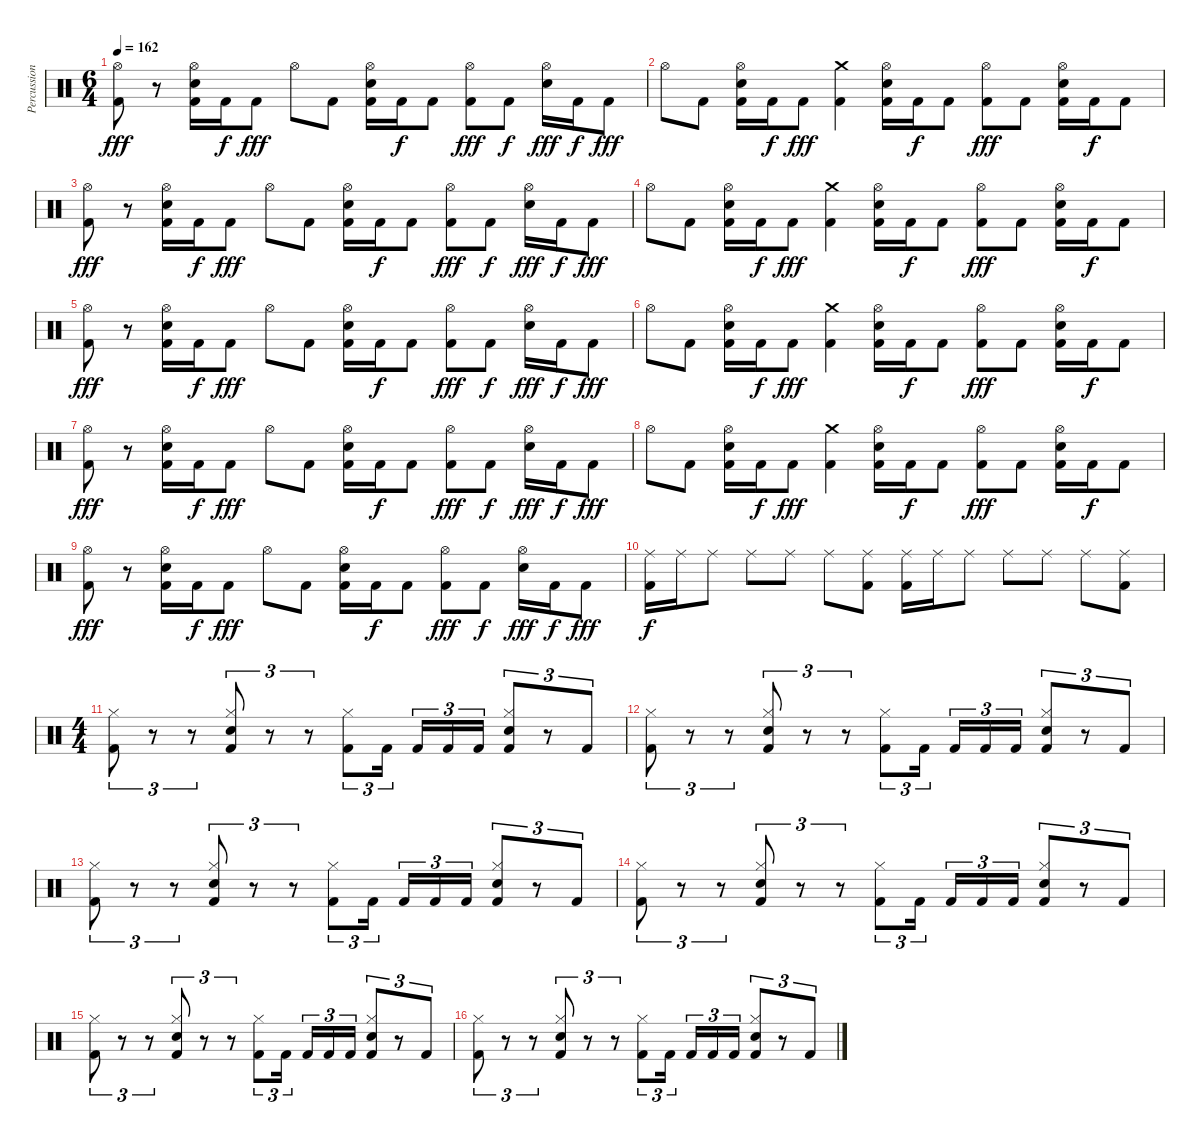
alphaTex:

\track ("Percussion" "Percussion") {instrument percussion}
\staff {score}
\articulation defaults
\ts (6 4)
\tempo 162
\clef neutral
\ks c
("Hi-Hat (open)" "Kick (hit) 2").8{dy fff} r.8 ("Hi-Hat (open)" "Snare (hit) 2" "Kick (hit) 2").16 "Kick (hit) 2".16{dy f} "Kick (hit) 2".8{dy fff} "Hi-Hat (open)".8 "Kick (hit) 2".8 ("Hi-Hat (open)" "Snare (hit) 2" "Kick (hit) 2").16 "Kick (hit) 2".16{dy f} "Kick (hit) 2".8 ("Hi-Hat (open)" "Kick (hit) 2").8{dy fff} "Kick (hit) 2".8{dy f} ("Hi-Hat (open)" "Snare (hit) 2").16{dy fff} "Kick (hit) 2".16{dy f} "Kick (hit) 2".8{dy fff} |
"Hi-Hat (open)".8 "Kick (hit) 2".8 ("Hi-Hat (open)" "Snare (hit) 2" "Kick (hit) 2").16 "Kick (hit) 2".16{dy f} "Kick (hit) 2".8{dy fff} ("Crash medium (hit)" "Kick (hit) 2").4 ("Hi-Hat (open)" "Snare (hit) 2" "Kick (hit) 2").16 "Kick (hit) 2".16{dy f} "Kick (hit) 2".8 ("Hi-Hat (open)" "Kick (hit) 2").8{dy fff} "Kick (hit) 2".8 ("Hi-Hat (open)" "Snare (hit) 2" "Kick (hit) 2").16 "Kick (hit) 2".16{dy f} "Kick (hit) 2".8 |
("Hi-Hat (open)" "Kick (hit) 2").8{dy fff} r.8 ("Hi-Hat (open)" "Snare (hit) 2" "Kick (hit) 2").16 "Kick (hit) 2".16{dy f} "Kick (hit) 2".8{dy fff} "Hi-Hat (open)".8 "Kick (hit) 2".8 ("Hi-Hat (open)" "Snare (hit) 2" "Kick (hit) 2").16 "Kick (hit) 2".16{dy f} "Kick (hit) 2".8 ("Hi-Hat (open)" "Kick (hit) 2").8{dy fff} "Kick (hit) 2".8{dy f} ("Hi-Hat (open)" "Snare (hit) 2").16{dy fff} "Kick (hit) 2".16{dy f} "Kick (hit) 2".8{dy fff} |
"Hi-Hat (open)".8 "Kick (hit) 2".8 ("Hi-Hat (open)" "Snare (hit) 2" "Kick (hit) 2").16 "Kick (hit) 2".16{dy f} "Kick (hit) 2".8{dy fff} ("Crash medium (hit)" "Kick (hit) 2").4 ("Hi-Hat (open)" "Snare (hit) 2" "Kick (hit) 2").16 "Kick (hit) 2".16{dy f} "Kick (hit) 2".8 ("Hi-Hat (open)" "Kick (hit) 2").8{dy fff} "Kick (hit) 2".8 ("Hi-Hat (open)" "Snare (hit) 2" "Kick (hit) 2").16 "Kick (hit) 2".16{dy f} "Kick (hit) 2".8 |
("Hi-Hat (open)" "Kick (hit) 2").8{dy fff} r.8 ("Hi-Hat (open)" "Snare (hit) 2" "Kick (hit) 2").16 "Kick (hit) 2".16{dy f} "Kick (hit) 2".8{dy fff} "Hi-Hat (open)".8 "Kick (hit) 2".8 ("Hi-Hat (open)" "Snare (hit) 2" "Kick (hit) 2").16 "Kick (hit) 2".16{dy f} "Kick (hit) 2".8 ("Hi-Hat (open)" "Kick (hit) 2").8{dy fff} "Kick (hit) 2".8{dy f} ("Hi-Hat (open)" "Snare (hit) 2").16{dy fff} "Kick (hit) 2".16{dy f} "Kick (hit) 2".8{dy fff} |
"Hi-Hat (open)".8 "Kick (hit) 2".8 ("Hi-Hat (open)" "Snare (hit) 2" "Kick (hit) 2").16 "Kick (hit) 2".16{dy f} "Kick (hit) 2".8{dy fff} ("Crash medium (hit)" "Kick (hit) 2").4 ("Hi-Hat (open)" "Snare (hit) 2" "Kick (hit) 2").16 "Kick (hit) 2".16{dy f} "Kick (hit) 2".8 ("Hi-Hat (open)" "Kick (hit) 2").8{dy fff} "Kick (hit) 2".8 ("Hi-Hat (open)" "Snare (hit) 2" "Kick (hit) 2").16 "Kick (hit) 2".16{dy f} "Kick (hit) 2".8 |
("Hi-Hat (open)" "Kick (hit) 2").8{dy fff} r.8 ("Hi-Hat (open)" "Snare (hit) 2" "Kick (hit) 2").16 "Kick (hit) 2".16{dy f} "Kick (hit) 2".8{dy fff} "Hi-Hat (open)".8 "Kick (hit) 2".8 ("Hi-Hat (open)" "Snare (hit) 2" "Kick (hit) 2").16 "Kick (hit) 2".16{dy f} "Kick (hit) 2".8 ("Hi-Hat (open)" "Kick (hit) 2").8{dy fff} "Kick (hit) 2".8{dy f} ("Hi-Hat (open)" "Snare (hit) 2").16{dy fff} "Kick (hit) 2".16{dy f} "Kick (hit) 2".8{dy fff} |
"Hi-Hat (open)".8 "Kick (hit) 2".8 ("Hi-Hat (open)" "Snare (hit) 2" "Kick (hit) 2").16 "Kick (hit) 2".16{dy f} "Kick (hit) 2".8{dy fff} ("Crash medium (hit)" "Kick (hit) 2").4 ("Hi-Hat (open)" "Snare (hit) 2" "Kick (hit) 2").16 "Kick (hit) 2".16{dy f} "Kick (hit) 2".8 ("Hi-Hat (open)" "Kick (hit) 2").8{dy fff} "Kick (hit) 2".8 ("Hi-Hat (open)" "Snare (hit) 2" "Kick (hit) 2").16 "Kick (hit) 2".16{dy f} "Kick (hit) 2".8 |
("Hi-Hat (open)" "Kick (hit) 2").8{dy fff} r.8 ("Hi-Hat (open)" "Snare (hit) 2" "Kick (hit) 2").16 "Kick (hit) 2".16{dy f} "Kick (hit) 2".8{dy fff} "Hi-Hat (open)".8 "Kick (hit) 2".8 ("Hi-Hat (open)" "Snare (hit) 2" "Kick (hit) 2").16 "Kick (hit) 2".16{dy f} "Kick (hit) 2".8 ("Hi-Hat (open)" "Kick (hit) 2").8{dy fff} "Kick (hit) 2".8{dy f} ("Hi-Hat (open)" "Snare (hit) 2").16{dy fff} "Kick (hit) 2".16{dy f} "Kick (hit) 2".8{dy fff} |
("Ride (middle)" "Kick (hit) 2").16{dy f} "Ride (middle)".16 "Ride (middle)".8 "Ride (middle)".8 "Ride (middle)".8 "Ride (middle)".8 ("Ride (middle)" "Kick (hit) 2").8 ("Ride (middle)" "Kick (hit) 2").16 "Ride (middle)".16 "Ride (middle)".8 "Ride (middle)".8 "Ride (middle)".8 "Ride (middle)".8 ("Ride (middle)" "Kick (hit) 2").8 |
\ts (4 4)
("Kick (hit) 2" "Hi-Hat (closed)").8{tu (3 2)} r.8{tu (3 2)} r.8{tu (3 2)} ("Kick (hit) 2" "Electric Snare (hit)" "Hi-Hat (closed)").8{tu (3 2)} r.8{tu (3 2)} r.8{tu (3 2)} ("Kick (hit) 2" "Hi-Hat (closed)").8{tu (3 2)} "Kick (hit) 2".16{tu (3 2)} "Kick (hit) 2".16{tu (3 2)} "Kick (hit) 2".16{tu (3 2)} "Kick (hit) 2".16{tu (3 2)} ("Kick (hit) 2" "Electric Snare (hit)" "Hi-Hat (closed)").8{tu (3 2)} r.8{tu (3 2)} "Kick (hit) 2".8{tu (3 2)} |
("Kick (hit) 2" "Hi-Hat (closed)").8{tu (3 2)} r.8{tu (3 2)} r.8{tu (3 2)} ("Kick (hit) 2" "Electric Snare (hit)" "Hi-Hat (closed)").8{tu (3 2)} r.8{tu (3 2)} r.8{tu (3 2)} ("Kick (hit) 2" "Hi-Hat (closed)").8{tu (3 2)} "Kick (hit) 2".16{tu (3 2)} "Kick (hit) 2".16{tu (3 2)} "Kick (hit) 2".16{tu (3 2)} "Kick (hit) 2".16{tu (3 2)} ("Kick (hit) 2" "Electric Snare (hit)" "Hi-Hat (closed)").8{tu (3 2)} r.8{tu (3 2)} "Kick (hit) 2".8{tu (3 2)} |
("Kick (hit) 2" "Hi-Hat (closed)").8{tu (3 2)} r.8{tu (3 2)} r.8{tu (3 2)} ("Kick (hit) 2" "Electric Snare (hit)" "Hi-Hat (closed)").8{tu (3 2)} r.8{tu (3 2)} r.8{tu (3 2)} ("Kick (hit) 2" "Hi-Hat (closed)").8{tu (3 2)} "Kick (hit) 2".16{tu (3 2)} "Kick (hit) 2".16{tu (3 2)} "Kick (hit) 2".16{tu (3 2)} "Kick (hit) 2".16{tu (3 2)} ("Kick (hit) 2" "Electric Snare (hit)" "Hi-Hat (closed)").8{tu (3 2)} r.8{tu (3 2)} "Kick (hit) 2".8{tu (3 2)} |
("Kick (hit) 2" "Hi-Hat (closed)").8{tu (3 2)} r.8{tu (3 2)} r.8{tu (3 2)} ("Kick (hit) 2" "Electric Snare (hit)" "Hi-Hat (closed)").8{tu (3 2)} r.8{tu (3 2)} r.8{tu (3 2)} ("Kick (hit) 2" "Hi-Hat (closed)").8{tu (3 2)} "Kick (hit) 2".16{tu (3 2)} "Kick (hit) 2".16{tu (3 2)} "Kick (hit) 2".16{tu (3 2)} "Kick (hit) 2".16{tu (3 2)} ("Kick (hit) 2" "Electric Snare (hit)" "Hi-Hat (closed)").8{tu (3 2)} r.8{tu (3 2)} "Kick (hit) 2".8{tu (3 2)} |
("Kick (hit) 2" "Hi-Hat (closed)").8{tu (3 2)} r.8{tu (3 2)} r.8{tu (3 2)} ("Kick (hit) 2" "Electric Snare (hit)" "Hi-Hat (closed)").8{tu (3 2)} r.8{tu (3 2)} r.8{tu (3 2)} ("Kick (hit) 2" "Hi-Hat (closed)").8{tu (3 2)} "Kick (hit) 2".16{tu (3 2)} "Kick (hit) 2".16{tu (3 2)} "Kick (hit) 2".16{tu (3 2)} "Kick (hit) 2".16{tu (3 2)} ("Kick (hit) 2" "Electric Snare (hit)" "Hi-Hat (closed)").8{tu (3 2)} r.8{tu (3 2)} "Kick (hit) 2".8{tu (3 2)} |
("Kick (hit) 2" "Hi-Hat (closed)").8{tu (3 2)} r.8{tu (3 2)} r.8{tu (3 2)} ("Kick (hit) 2" "Electric Snare (hit)" "Hi-Hat (closed)").8{tu (3 2)} r.8{tu (3 2)} r.8{tu (3 2)} ("Kick (hit) 2" "Hi-Hat (closed)").8{tu (3 2)} "Kick (hit) 2".16{tu (3 2)} "Kick (hit) 2".16{tu (3 2)} "Kick (hit) 2".16{tu (3 2)} "Kick (hit) 2".16{tu (3 2)} ("Kick (hit) 2" "Electric Snare (hit)" "Hi-Hat (closed)").8{tu (3 2)} r.8{tu (3 2)} "Kick (hit) 2".8{tu (3 2)}
